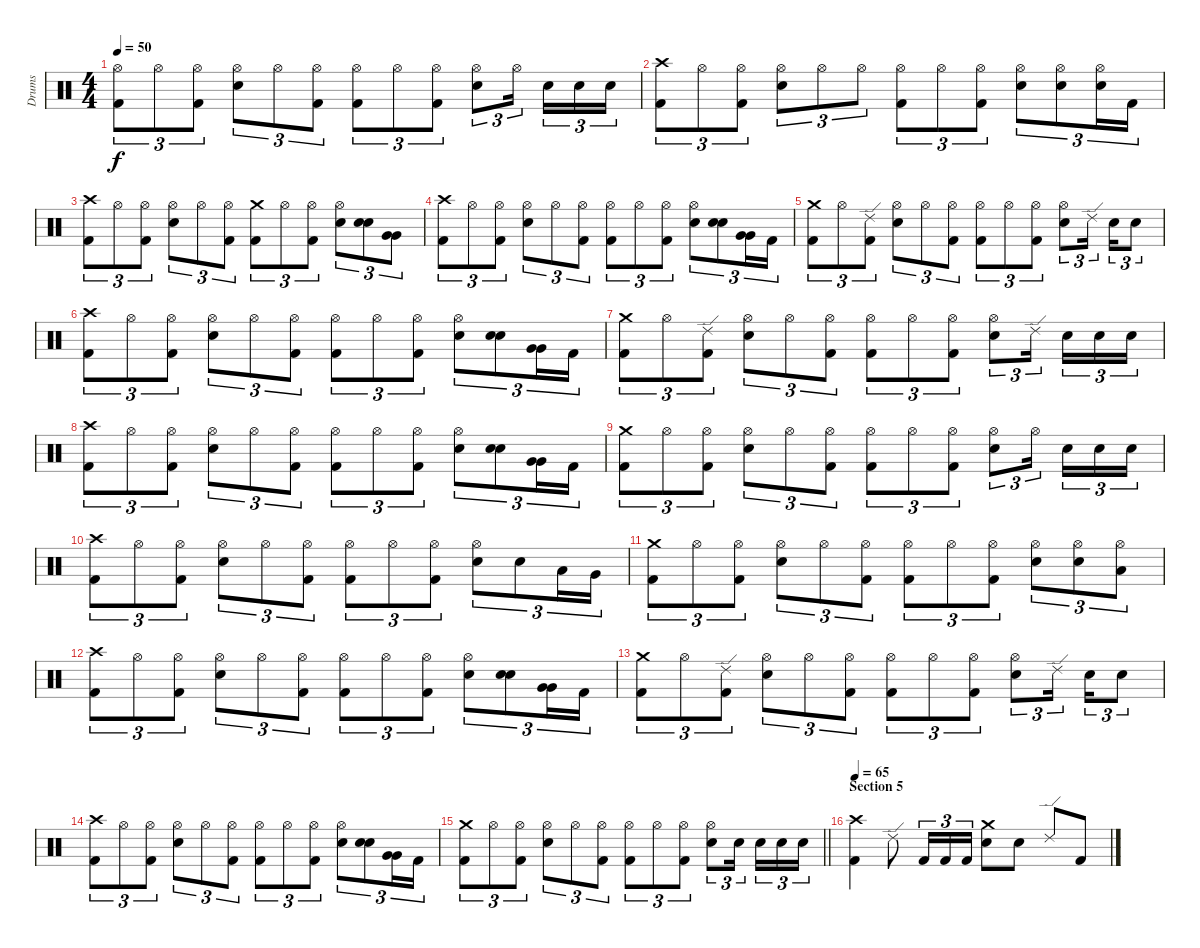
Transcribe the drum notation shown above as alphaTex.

\track ("Drums" "Drums") {instrument percussion}
\staff {score}
\articulation defaults
\ts (4 4)
\tempo 50
\clef neutral
\ks c
("Hi-Hat (open)" "Kick (hit) 2").8{tu (3 2) dy f} "Hi-Hat (open)".8{tu (3 2)} ("Hi-Hat (open)" "Kick (hit) 2").8{tu (3 2)} ("Hi-Hat (open)" "Electric Snare (hit)").8{tu (3 2)} "Hi-Hat (open)".8{tu (3 2)} ("Hi-Hat (open)" "Kick (hit) 2").8{tu (3 2)} ("Hi-Hat (open)" "Kick (hit) 2").8{tu (3 2)} "Hi-Hat (open)".8{tu (3 2)} ("Hi-Hat (open)" "Kick (hit) 2").8{tu (3 2)} ("Hi-Hat (open)" "Electric Snare (hit)").8{tu (3 2)} "Hi-Hat (open)".16{tu (3 2)} "Electric Snare (hit)".16{tu (3 2)} "Electric Snare (hit)".16{tu (3 2)} "Electric Snare (hit)".16{tu (3 2)} |
("Crash high (hit)" "Kick (hit) 2").8{tu (3 2)} "Hi-Hat (open)".8{tu (3 2)} ("Hi-Hat (open)" "Kick (hit) 2").8{tu (3 2)} ("Hi-Hat (open)" "Electric Snare (hit)").8{tu (3 2)} "Hi-Hat (open)".8{tu (3 2)} "Hi-Hat (open)".8{tu (3 2)} ("Hi-Hat (open)" "Kick (hit) 2").8{tu (3 2)} "Hi-Hat (open)".8{tu (3 2)} ("Hi-Hat (open)" "Kick (hit) 2").8{tu (3 2)} ("Hi-Hat (open)" "Electric Snare (hit)").8{tu (3 2)} ("Hi-Hat (open)" "Electric Snare (hit)").8{tu (3 2)} ("Hi-Hat (open)" "Electric Snare (hit)").16{tu (3 2)} "Kick (hit) 2".16{tu (3 2)} |
("Crash high (hit)" "Kick (hit) 2").8{tu (3 2)} "Hi-Hat (open)".8{tu (3 2)} ("Hi-Hat (open)" "Kick (hit) 2").8{tu (3 2)} ("Hi-Hat (open)" "Electric Snare (hit)").8{tu (3 2)} "Hi-Hat (open)".8{tu (3 2)} ("Hi-Hat (open)" "Kick (hit) 2").8{tu (3 2)} ("Crash medium (hit)" "Kick (hit) 2").8{tu (3 2)} "Hi-Hat (open)".8{tu (3 2)} ("Hi-Hat (open)" "Kick (hit) 2").8{tu (3 2)} ("Hi-Hat (open)" "Electric Snare (hit)").8{tu (3 2)} ("Electric Snare (hit)" "Electric Snare (hit)").8{tu (3 2) bu 60} ("Very Low Tom (hit)" "Very Low Tom (hit)").8{tu (3 2) bu 60} |
("Crash high (hit)" "Kick (hit) 2").8{tu (3 2)} "Hi-Hat (open)".8{tu (3 2)} ("Hi-Hat (open)" "Kick (hit) 2").8{tu (3 2)} ("Hi-Hat (open)" "Electric Snare (hit)").8{tu (3 2)} "Hi-Hat (open)".8{tu (3 2)} ("Hi-Hat (open)" "Kick (hit) 2").8{tu (3 2)} ("Hi-Hat (open)" "Kick (hit) 2").8{tu (3 2)} "Hi-Hat (open)".8{tu (3 2)} ("Hi-Hat (open)" "Kick (hit) 2").8{tu (3 2)} ("Hi-Hat (open)" "Electric Snare (hit)").8{tu (3 2)} ("Electric Snare (hit)" "Electric Snare (hit)").8{tu (3 2) bu 60} ("Very Low Tom (hit)" "Very Low Tom (hit)").16{tu (3 2) bu 60} "Kick (hit) 2".16{tu (3 2)} |
("Crash medium (hit)" "Kick (hit) 2").8{tu (3 2)} "Hi-Hat (open)".8{tu (3 2)} ("Ride (edge) 2" "Kick (hit) 2").8{tu (3 2)} ("Hi-Hat (open)" "Electric Snare (hit)").8{tu (3 2)} "Hi-Hat (open)".8{tu (3 2)} ("Hi-Hat (open)" "Kick (hit) 2").8{tu (3 2)} ("Hi-Hat (open)" "Kick (hit) 2").8{tu (3 2)} "Hi-Hat (open)".8{tu (3 2)} ("Hi-Hat (open)" "Kick (hit) 2").8{tu (3 2)} ("Hi-Hat (open)" "Electric Snare (hit)").8{tu (3 2)} "Ride (edge) 2".16{tu (3 2)} "Electric Snare (hit)".16{tu (3 2)} "Electric Snare (hit)".8{tu (3 2)} |
("Crash high (hit)" "Kick (hit) 2").8{tu (3 2)} "Hi-Hat (open)".8{tu (3 2)} ("Hi-Hat (open)" "Kick (hit) 2").8{tu (3 2)} ("Hi-Hat (open)" "Electric Snare (hit)").8{tu (3 2)} "Hi-Hat (open)".8{tu (3 2)} ("Hi-Hat (open)" "Kick (hit) 2").8{tu (3 2)} ("Hi-Hat (open)" "Kick (hit) 2").8{tu (3 2)} "Hi-Hat (open)".8{tu (3 2)} ("Hi-Hat (open)" "Kick (hit) 2").8{tu (3 2)} ("Hi-Hat (open)" "Electric Snare (hit)").8{tu (3 2)} ("Electric Snare (hit)" "Electric Snare (hit)").8{tu (3 2) bu 60} ("Very Low Tom (hit)" "Very Low Tom (hit)").16{tu (3 2) bu 60} "Kick (hit) 2".16{tu (3 2)} |
("Crash medium (hit)" "Kick (hit) 2").8{tu (3 2)} "Hi-Hat (open)".8{tu (3 2)} ("Ride (edge) 2" "Kick (hit) 2").8{tu (3 2)} ("Hi-Hat (open)" "Electric Snare (hit)").8{tu (3 2)} "Hi-Hat (open)".8{tu (3 2)} ("Hi-Hat (open)" "Kick (hit) 2").8{tu (3 2)} ("Hi-Hat (open)" "Kick (hit) 2").8{tu (3 2)} "Hi-Hat (open)".8{tu (3 2)} ("Hi-Hat (open)" "Kick (hit) 2").8{tu (3 2)} ("Hi-Hat (open)" "Electric Snare (hit)").8{tu (3 2)} "Ride (edge) 2".16{tu (3 2)} "Electric Snare (hit)".16{tu (3 2)} "Electric Snare (hit)".16{tu (3 2)} "Electric Snare (hit)".16{tu (3 2)} |
("Crash high (hit)" "Kick (hit) 2").8{tu (3 2)} "Hi-Hat (open)".8{tu (3 2)} ("Hi-Hat (open)" "Kick (hit) 2").8{tu (3 2)} ("Hi-Hat (open)" "Electric Snare (hit)").8{tu (3 2)} "Hi-Hat (open)".8{tu (3 2)} ("Hi-Hat (open)" "Kick (hit) 2").8{tu (3 2)} ("Hi-Hat (open)" "Kick (hit) 2").8{tu (3 2)} "Hi-Hat (open)".8{tu (3 2)} ("Hi-Hat (open)" "Kick (hit) 2").8{tu (3 2)} ("Hi-Hat (open)" "Electric Snare (hit)").8{tu (3 2)} ("Electric Snare (hit)" "Electric Snare (hit)").8{tu (3 2) bu 60} ("Very Low Tom (hit)" "Very Low Tom (hit)").16{tu (3 2) bu 60} "Kick (hit) 2".16{tu (3 2)} |
("Crash medium (hit)" "Kick (hit) 2").8{tu (3 2)} "Hi-Hat (open)".8{tu (3 2)} ("Hi-Hat (open)" "Kick (hit) 2").8{tu (3 2)} ("Hi-Hat (open)" "Electric Snare (hit)").8{tu (3 2)} "Hi-Hat (open)".8{tu (3 2)} ("Hi-Hat (open)" "Kick (hit) 2").8{tu (3 2)} ("Hi-Hat (open)" "Kick (hit) 2").8{tu (3 2)} "Hi-Hat (open)".8{tu (3 2)} ("Hi-Hat (open)" "Kick (hit) 2").8{tu (3 2)} ("Hi-Hat (open)" "Electric Snare (hit)").8{tu (3 2)} "Hi-Hat (open)".16{tu (3 2)} "Electric Snare (hit)".16{tu (3 2)} "Electric Snare (hit)".16{tu (3 2)} "Electric Snare (hit)".16{tu (3 2)} |
("Crash high (hit)" "Kick (hit) 2").8{tu (3 2)} "Hi-Hat (open)".8{tu (3 2)} ("Hi-Hat (open)" "Kick (hit) 2").8{tu (3 2)} ("Hi-Hat (open)" "Electric Snare (hit)").8{tu (3 2)} "Hi-Hat (open)".8{tu (3 2)} ("Hi-Hat (open)" "Kick (hit) 2").8{tu (3 2)} ("Hi-Hat (open)" "Kick (hit) 2").8{tu (3 2)} "Hi-Hat (open)".8{tu (3 2)} ("Hi-Hat (open)" "Kick (hit) 2").8{tu (3 2)} ("Hi-Hat (open)" "Electric Snare (hit)").8{tu (3 2)} "Electric Snare (hit)".8{tu (3 2)} "Low Tom (hit)".16{tu (3 2)} "Very Low Tom (hit)".16{tu (3 2)} |
("Crash medium (hit)" "Kick (hit) 2").8{tu (3 2)} "Hi-Hat (open)".8{tu (3 2)} ("Hi-Hat (open)" "Kick (hit) 2").8{tu (3 2)} ("Hi-Hat (open)" "Electric Snare (hit)").8{tu (3 2)} "Hi-Hat (open)".8{tu (3 2)} ("Hi-Hat (open)" "Kick (hit) 2").8{tu (3 2)} ("Hi-Hat (open)" "Kick (hit) 2").8{tu (3 2)} "Hi-Hat (open)".8{tu (3 2)} ("Hi-Hat (open)" "Kick (hit) 2").8{tu (3 2)} ("Hi-Hat (open)" "Electric Snare (hit)").8{tu (3 2)} ("Hi-Hat (open)" "Electric Snare (hit)").8{tu (3 2)} ("Hi-Hat (open)" "Low Tom (hit)").8{tu (3 2)} |
("Crash high (hit)" "Kick (hit) 2").8{tu (3 2)} "Hi-Hat (open)".8{tu (3 2)} ("Hi-Hat (open)" "Kick (hit) 2").8{tu (3 2)} ("Hi-Hat (open)" "Electric Snare (hit)").8{tu (3 2)} "Hi-Hat (open)".8{tu (3 2)} ("Hi-Hat (open)" "Kick (hit) 2").8{tu (3 2)} ("Hi-Hat (open)" "Kick (hit) 2").8{tu (3 2)} "Hi-Hat (open)".8{tu (3 2)} ("Hi-Hat (open)" "Kick (hit) 2").8{tu (3 2)} ("Hi-Hat (open)" "Electric Snare (hit)").8{tu (3 2)} ("Electric Snare (hit)" "Electric Snare (hit)").8{tu (3 2) bu 60} ("Very Low Tom (hit)" "Very Low Tom (hit)").16{tu (3 2) bu 60} "Kick (hit) 2".16{tu (3 2)} |
("Crash medium (hit)" "Kick (hit) 2").8{tu (3 2)} "Hi-Hat (open)".8{tu (3 2)} ("Ride (edge) 2" "Kick (hit) 2").8{tu (3 2)} ("Hi-Hat (open)" "Electric Snare (hit)").8{tu (3 2)} "Hi-Hat (open)".8{tu (3 2)} ("Hi-Hat (open)" "Kick (hit) 2").8{tu (3 2)} ("Hi-Hat (open)" "Kick (hit) 2").8{tu (3 2)} "Hi-Hat (open)".8{tu (3 2)} ("Hi-Hat (open)" "Kick (hit) 2").8{tu (3 2)} ("Hi-Hat (open)" "Electric Snare (hit)").8{tu (3 2)} "Ride (edge) 2".16{tu (3 2)} "Electric Snare (hit)".16{tu (3 2)} "Electric Snare (hit)".8{tu (3 2)} |
("Crash high (hit)" "Kick (hit) 2").8{tu (3 2)} "Hi-Hat (open)".8{tu (3 2)} ("Hi-Hat (open)" "Kick (hit) 2").8{tu (3 2)} ("Hi-Hat (open)" "Electric Snare (hit)").8{tu (3 2)} "Hi-Hat (open)".8{tu (3 2)} ("Hi-Hat (open)" "Kick (hit) 2").8{tu (3 2)} ("Hi-Hat (open)" "Kick (hit) 2").8{tu (3 2)} "Hi-Hat (open)".8{tu (3 2)} ("Hi-Hat (open)" "Kick (hit) 2").8{tu (3 2)} ("Hi-Hat (open)" "Electric Snare (hit)").8{tu (3 2)} ("Electric Snare (hit)" "Electric Snare (hit)").8{tu (3 2) bu 60} ("Very Low Tom (hit)" "Very Low Tom (hit)").16{tu (3 2) bu 60} "Kick (hit) 2".16{tu (3 2)} |
\barLineRight lightlight
("Crash medium (hit)" "Kick (hit) 2").8{tu (3 2)} "Hi-Hat (open)".8{tu (3 2)} ("Hi-Hat (open)" "Kick (hit) 2").8{tu (3 2)} ("Hi-Hat (open)" "Electric Snare (hit)").8{tu (3 2)} "Hi-Hat (open)".8{tu (3 2)} ("Hi-Hat (open)" "Kick (hit) 2").8{tu (3 2)} ("Hi-Hat (open)" "Kick (hit) 2").8{tu (3 2)} "Hi-Hat (open)".8{tu (3 2)} ("Hi-Hat (open)" "Kick (hit) 2").8{tu (3 2)} ("Hi-Hat (open)" "Electric Snare (hit)").8{tu (3 2)} "Electric Snare (hit)".16{tu (3 2)} "Electric Snare (hit)".16{tu (3 2)} "Electric Snare (hit)".16{tu (3 2)} "Electric Snare (hit)".16{tu (3 2)} |
\section ("" "Section 5")
\tempo 65
("Crash high (hit)" "Kick (hit) 2").4 "Ride (edge) 2".8 "Kick (hit) 2".16{tu (3 2)} "Kick (hit) 2".16{tu (3 2)} "Kick (hit) 2".16{tu (3 2)} ("Crash medium (hit)" "Electric Snare (hit)").8 "Electric Snare (hit)".8 "Ride (edge) 2".8 "Kick (hit) 2".8
